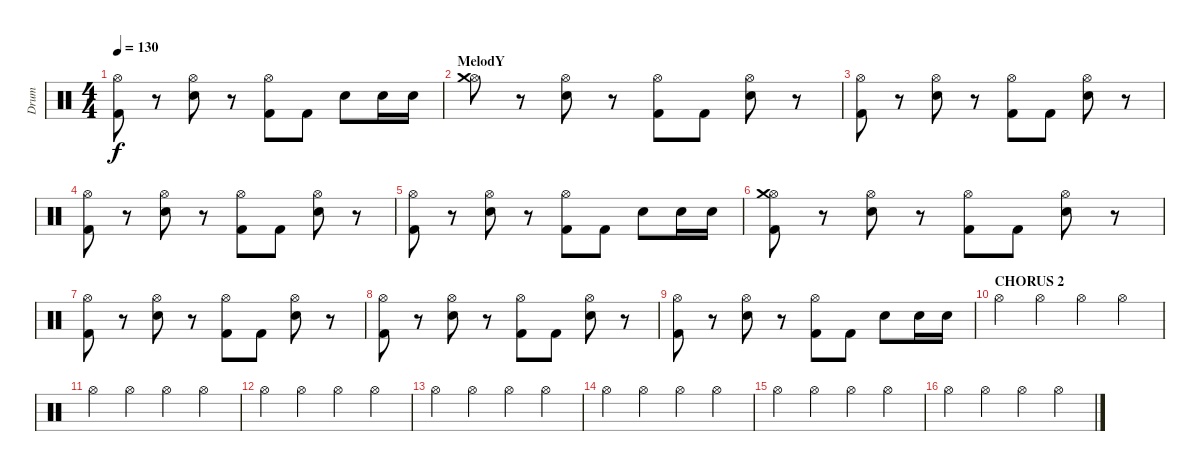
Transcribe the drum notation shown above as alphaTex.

\track ("Drum" "Drum") {instrument percussion}
\staff {score}
\articulation defaults
\ts (4 4)
\tempo 130
\clef neutral
\ks c
("Hi-Hat (open)" "Kick (hit) 2").8{dy f} r.8 ("Hi-Hat (open)" "Electric Snare (hit)").8 r.8 ("Hi-Hat (open)" "Kick (hit) 2").8 "Kick (hit) 2".8 "Electric Snare (hit)".8 "Electric Snare (hit)".16 "Electric Snare (hit)".16 |
\section ("" "MelodY")
("Hi-Hat (open)" "Crash medium (hit)").8 r.8 ("Hi-Hat (open)" "Electric Snare (hit)").8 r.8 ("Hi-Hat (open)" "Kick (hit) 2").8 "Kick (hit) 2".8 ("Hi-Hat (open)" "Electric Snare (hit)").8 r.8 |
("Hi-Hat (open)" "Kick (hit) 2").8 r.8 ("Hi-Hat (open)" "Electric Snare (hit)").8 r.8 ("Hi-Hat (open)" "Kick (hit) 2").8 "Kick (hit) 2".8 ("Hi-Hat (open)" "Electric Snare (hit)").8 r.8 |
("Hi-Hat (open)" "Kick (hit) 2").8 r.8 ("Hi-Hat (open)" "Electric Snare (hit)").8 r.8 ("Hi-Hat (open)" "Kick (hit) 2").8 "Kick (hit) 2".8 ("Hi-Hat (open)" "Electric Snare (hit)").8 r.8 |
("Hi-Hat (open)" "Kick (hit) 2").8 r.8 ("Hi-Hat (open)" "Electric Snare (hit)").8 r.8 ("Hi-Hat (open)" "Kick (hit) 2").8 "Kick (hit) 2".8 "Electric Snare (hit)".8 "Electric Snare (hit)".16 "Electric Snare (hit)".16 |
("Hi-Hat (open)" "Crash medium (hit)" "Kick (hit) 2").8 r.8 ("Hi-Hat (open)" "Electric Snare (hit)").8 r.8 ("Hi-Hat (open)" "Kick (hit) 2").8 "Kick (hit) 2".8 ("Hi-Hat (open)" "Electric Snare (hit)").8 r.8 |
("Hi-Hat (open)" "Kick (hit) 2").8 r.8 ("Hi-Hat (open)" "Electric Snare (hit)").8 r.8 ("Hi-Hat (open)" "Kick (hit) 2").8 "Kick (hit) 2".8 ("Hi-Hat (open)" "Electric Snare (hit)").8 r.8 |
("Hi-Hat (open)" "Kick (hit) 2").8 r.8 ("Hi-Hat (open)" "Electric Snare (hit)").8 r.8 ("Hi-Hat (open)" "Kick (hit) 2").8 "Kick (hit) 2".8 ("Hi-Hat (open)" "Electric Snare (hit)").8 r.8 |
("Hi-Hat (open)" "Kick (hit) 2").8 r.8 ("Hi-Hat (open)" "Electric Snare (hit)").8 r.8 ("Hi-Hat (open)" "Kick (hit) 2").8 "Kick (hit) 2".8 "Electric Snare (hit)".8 "Electric Snare (hit)".16 "Electric Snare (hit)".16 |
\section ("" "CHORUS 2")
"Hi-Hat (open)".4 "Hi-Hat (open)".4 "Hi-Hat (open)".4 "Hi-Hat (open)".4 |
"Hi-Hat (open)".4 "Hi-Hat (open)".4 "Hi-Hat (open)".4 "Hi-Hat (open)".4 |
"Hi-Hat (open)".4 "Hi-Hat (open)".4 "Hi-Hat (open)".4 "Hi-Hat (open)".4 |
"Hi-Hat (open)".4 "Hi-Hat (open)".4 "Hi-Hat (open)".4 "Hi-Hat (open)".4 |
"Hi-Hat (open)".4 "Hi-Hat (open)".4 "Hi-Hat (open)".4 "Hi-Hat (open)".4 |
"Hi-Hat (open)".4 "Hi-Hat (open)".4 "Hi-Hat (open)".4 "Hi-Hat (open)".4 |
"Hi-Hat (open)".4 "Hi-Hat (open)".4 "Hi-Hat (open)".4 "Hi-Hat (open)".4
